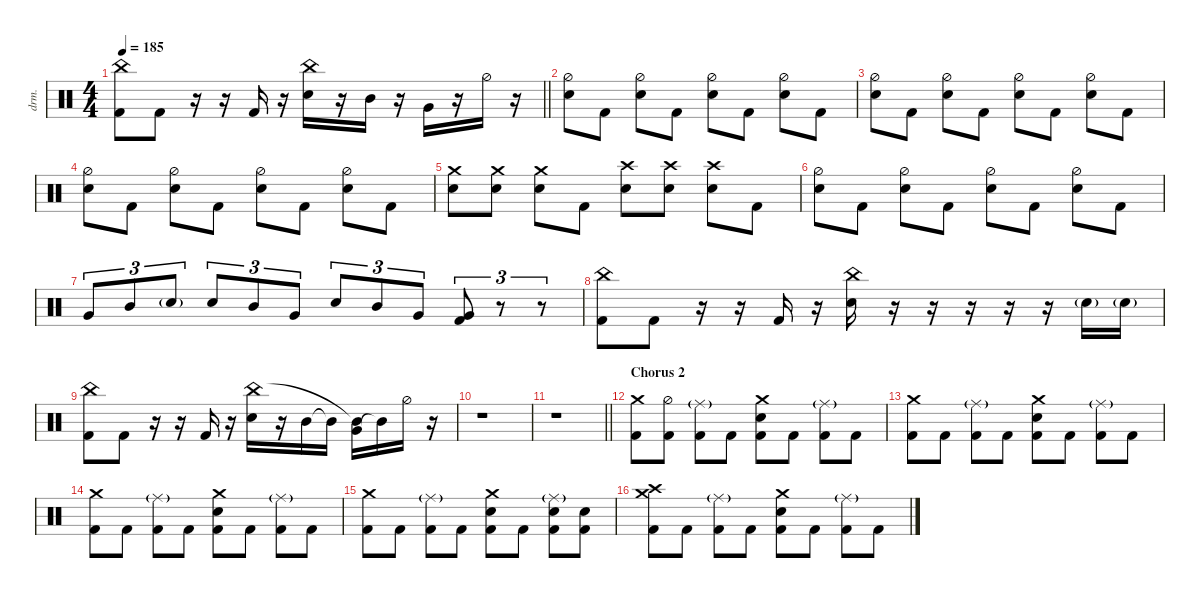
\defaultSystemsLayout 4
\hideDynamics
\bracketExtendMode nobrackets
\track ("Drums - Šimon" "drm.") {instrument percussion}
\staff {score}
\articulation defaults
\ts (4 4)
\tempo 185
\clef neutral
\barLineRight lightlight
\ks c
("China (hit)" "Kick (hit) 2").8{dy ff} "Kick (hit) 2".8 r.16 r.16 "Kick (hit) 2".16 r.16 ("Snare (hit) 2" "China (hit)").16 r.16 "Mid Tom (hit)".16 r.16 "Very Low Tom (hit)".16 r.16 "Hi-Hat (half)".16 r.16 |
("Snare (hit) 2" "Hi-Hat (half)").8 "Kick (hit) 2".8 ("Snare (hit) 2" "Hi-Hat (half)").8 "Kick (hit) 2".8 ("Snare (hit) 2" "Hi-Hat (half)").8 "Kick (hit) 2".8 ("Snare (hit) 2" "Hi-Hat (half)").8 "Kick (hit) 2".8 |
("Snare (hit) 2" "Hi-Hat (half)").8 "Kick (hit) 2".8 ("Snare (hit) 2" "Hi-Hat (half)").8 "Kick (hit) 2".8 ("Snare (hit) 2" "Hi-Hat (half)").8 "Kick (hit) 2".8 ("Snare (hit) 2" "Hi-Hat (half)").8 "Kick (hit) 2".8 |
("Snare (hit) 2" "Hi-Hat (half)").8 "Kick (hit) 2".8 ("Snare (hit) 2" "Hi-Hat (half)").8 "Kick (hit) 2".8 ("Snare (hit) 2" "Hi-Hat (half)").8 "Kick (hit) 2".8 ("Snare (hit) 2" "Hi-Hat (half)").8 "Kick (hit) 2".8 |
("Snare (hit) 2" "Crash medium (hit)").8 ("Snare (hit) 2" "Crash medium (hit)").8 ("Snare (hit) 2" "Crash medium (hit)").8 "Kick (hit) 2".8 ("Snare (hit) 2" "Crash high (hit)").8 ("Snare (hit) 2" "Crash high (hit)").8 ("Snare (hit) 2" "Crash high (hit)").8 "Kick (hit) 2".8 |
("Snare (hit) 2" "Hi-Hat (half)").8 "Kick (hit) 2".8 ("Snare (hit) 2" "Hi-Hat (half)").8 "Kick (hit) 2".8 ("Snare (hit) 2" "Hi-Hat (half)").8 "Kick (hit) 2".8 ("Snare (hit) 2" "Hi-Hat (half)").8 "Kick (hit) 2".8 |
"Very Low Tom (hit)".8{tu (3 2)} "Mid Tom (hit)".8{tu (3 2)} "Snare (hit) 2"{g}.8{tu (3 2)} "Snare (hit) 2".8{tu (3 2)} "Mid Tom (hit)".8{tu (3 2)} "Very Low Tom (hit)".8{tu (3 2)} "Snare (hit) 2".8{tu (3 2)} "Mid Tom (hit)".8{tu (3 2)} "Very Low Tom (hit)".8{tu (3 2)} ("Kick (hit) 2" "Very Low Tom (hit)").8{tu (3 2)} r.8{tu (3 2)} r.8{tu (3 2)} |
("China (hit)" "Kick (hit) 2").8 "Kick (hit) 2".8 r.16 r.16 "Kick (hit) 2".16 r.16 ("Snare (hit) 2" "China (hit)").16 r.16 r.16 r.16 r.16 r.16 "Snare (hit) 2"{g}.16 "Snare (hit) 2"{g}.16 |
("China (hit)" "Kick (hit) 2").8 "Kick (hit) 2".8 r.16 r.16 "Kick (hit) 2".16 r.16 ("Snare (hit) 2" "China (hit)").16 r.16 "Mid Tom (hit)".16 "Mid Tom (hit)"{t}.16 ("Very Low Tom (hit)" "Mid Tom (hit)"{t}).16 "Mid Tom (hit)"{t}.16 "Hi-Hat (half)".16 r.16 |
r.1 |
\barLineRight lightlight
r.1 |
\section ("" "Chorus 2")
("Crash medium (hit)" "Kick (hit) 2").8 ("Kick (hit) 2" "Hi-Hat (half)").8 ("Kick (hit) 2" "Ride (middle)"{g}).8 "Kick (hit) 2".8 ("Snare (hit) 2" "Crash medium (hit)" "Kick (hit) 2").8 "Kick (hit) 2".8 ("Kick (hit) 2" "Ride (middle)"{g}).8 "Kick (hit) 2".8 |
("Crash medium (hit)" "Kick (hit) 2").8 "Kick (hit) 2".8 ("Kick (hit) 2" "Ride (middle)"{g}).8 "Kick (hit) 2".8 ("Snare (hit) 2" "Crash medium (hit)" "Kick (hit) 2").8 "Kick (hit) 2".8 ("Kick (hit) 2" "Ride (middle)"{g}).8 "Kick (hit) 2".8 |
("Crash medium (hit)" "Kick (hit) 2").8 "Kick (hit) 2".8 ("Kick (hit) 2" "Ride (middle)"{g}).8 "Kick (hit) 2".8 ("Snare (hit) 2" "Crash medium (hit)" "Kick (hit) 2").8 "Kick (hit) 2".8 ("Kick (hit) 2" "Ride (middle)"{g}).8 "Kick (hit) 2".8 |
("Crash medium (hit)" "Kick (hit) 2").8 "Kick (hit) 2".8 ("Kick (hit) 2" "Ride (middle)"{g}).8 "Kick (hit) 2".8 ("Snare (hit) 2" "Crash medium (hit)" "Kick (hit) 2").8 "Kick (hit) 2".8 ("Kick (hit) 2" "Ride (middle)"{g} "Snare (hit) 2").8 ("Kick (hit) 2" "Snare (hit) 2").8 |
("Crash medium (hit)" "Kick (hit) 2" "Crash high (hit)").8 "Kick (hit) 2".8 ("Kick (hit) 2" "Ride (middle)"{g}).8 "Kick (hit) 2".8 ("Snare (hit) 2" "Crash medium (hit)" "Kick (hit) 2").8 "Kick (hit) 2".8 ("Kick (hit) 2" "Ride (middle)"{g}).8 "Kick (hit) 2".8
